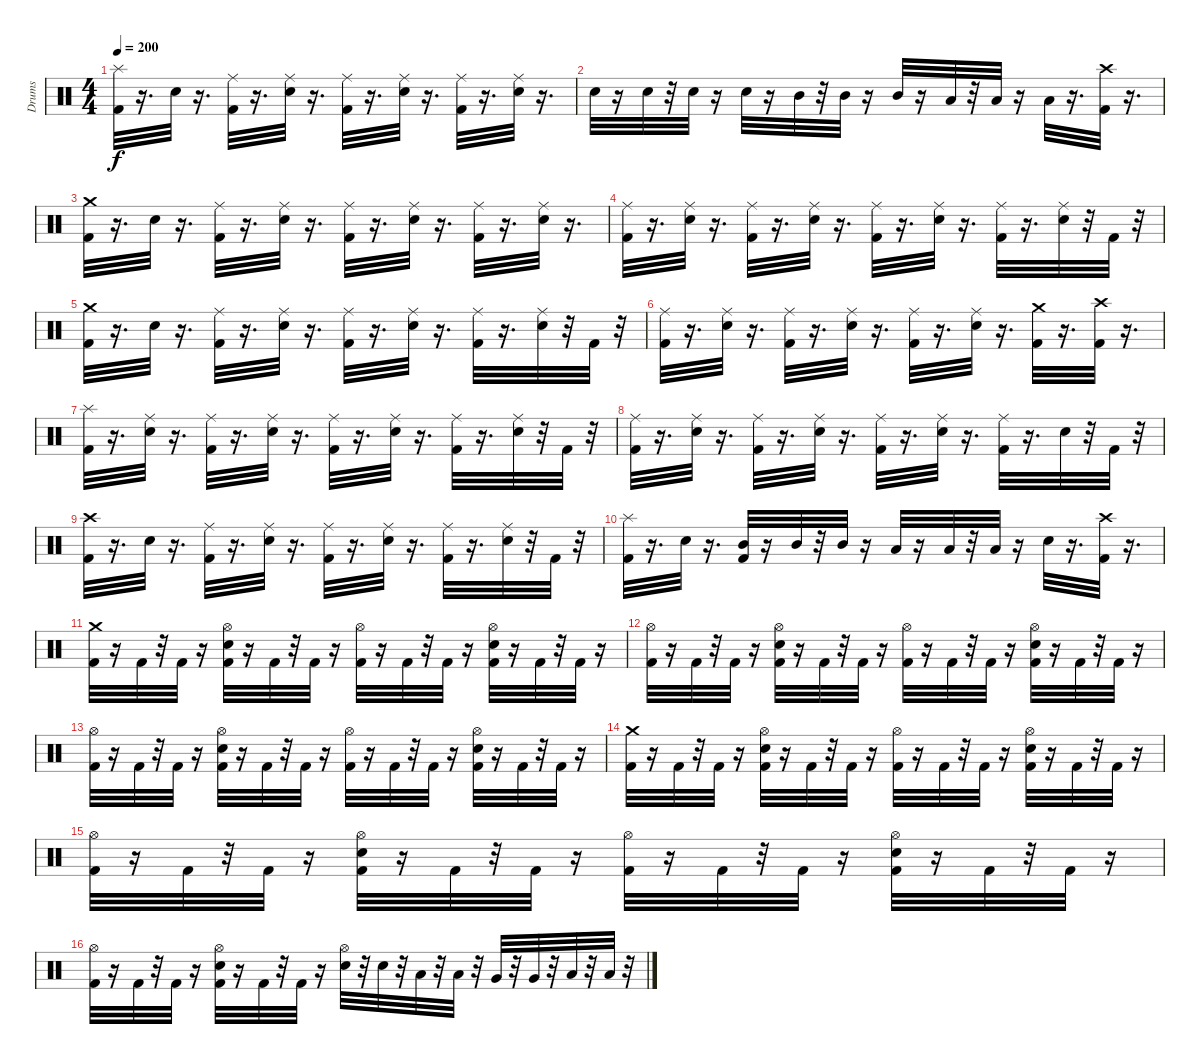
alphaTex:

\track ("Drums" "Drums") {instrument percussion}
\staff {score}
\articulation defaults
\ts (4 4)
\tempo 200
\clef neutral
\ks c
("Kick (hit) 2" "Splash (hit)").32{dy f} r.16{d} "Electric Snare (hit)".32 r.16{d} ("Kick (hit) 2" "Ride (middle)").32 r.16{d} ("Electric Snare (hit)" "Ride (middle)").32 r.16{d} ("Ride (middle)" "Kick (hit) 2").32 r.16{d} ("Electric Snare (hit)" "Ride (middle)").32 r.16{d} ("Ride (middle)" "Kick (hit) 2").32 r.16{d} ("Electric Snare (hit)" "Ride (middle)").32 r.16{d} |
"Electric Snare (hit)".32 r.16 "Electric Snare (hit)".32 r.32 "Electric Snare (hit)".32 r.16 "Electric Snare (hit)".32 r.16 "Mid Tom (hit)".32 r.32 "Mid Tom (hit)".32 r.16 "Mid Tom (hit)".32 r.16 "Low Tom (hit)".32 r.32 "Low Tom (hit)".32 r.16 "Low Tom (hit)".32 r.16{d} ("Crash high (hit)" "Kick (hit) 2").32 r.16{d} |
("Kick (hit) 2" "Crash medium (hit)").32 r.16{d} "Electric Snare (hit)".32 r.16{d} ("Kick (hit) 2" "Ride (middle)").32 r.16{d} ("Electric Snare (hit)" "Ride (middle)").32 r.16{d} ("Ride (middle)" "Kick (hit) 2").32 r.16{d} ("Electric Snare (hit)" "Ride (middle)").32 r.16{d} ("Kick (hit) 2" "Ride (middle)").32 r.16{d} ("Electric Snare (hit)" "Ride (middle)").32 r.16{d} |
("Kick (hit) 2" "Ride (middle)").32 r.16{d} ("Electric Snare (hit)" "Ride (middle)").32 r.16{d} ("Kick (hit) 2" "Ride (middle)").32 r.16{d} ("Electric Snare (hit)" "Ride (middle)").32 r.16{d} ("Kick (hit) 2" "Ride (middle)").32 r.16{d} ("Electric Snare (hit)" "Ride (middle)").32 r.16{d} ("Kick (hit) 2" "Ride (middle)").32 r.16{d} ("Electric Snare (hit)" "Ride (middle)").32 r.32 "Kick (hit) 2".32 r.32 |
("Kick (hit) 2" "Crash medium (hit)").32 r.16{d} "Electric Snare (hit)".32 r.16{d} ("Kick (hit) 2" "Ride (middle)").32 r.16{d} ("Electric Snare (hit)" "Ride (middle)").32 r.16{d} ("Kick (hit) 2" "Ride (middle)").32 r.16{d} ("Electric Snare (hit)" "Ride (middle)").32 r.16{d} ("Kick (hit) 2" "Ride (middle)").32 r.16{d} ("Electric Snare (hit)" "Ride (middle)").32 r.32 "Kick (hit) 2".32 r.32 |
("Kick (hit) 2" "Ride (middle)").32 r.16{d} ("Ride (middle)" "Electric Snare (hit)").32 r.16{d} ("Kick (hit) 2" "Ride (middle)").32 r.16{d} ("Electric Snare (hit)" "Ride (middle)").32 r.16{d} ("Kick (hit) 2" "Ride (middle)").32 r.16{d} ("Electric Snare (hit)" "Ride (middle)").32 r.16{d} ("Crash medium (hit)" "Kick (hit) 2").32 r.16{d} ("Crash high (hit)" "Kick (hit) 2").32 r.16{d} |
("Splash (hit)" "Kick (hit) 2").32 r.16{d} ("Electric Snare (hit)" "Ride (middle)").32 r.16{d} ("Ride (middle)" "Kick (hit) 2").32 r.16{d} ("Electric Snare (hit)" "Ride (middle)").32 r.16{d} ("Ride (middle)" "Kick (hit) 2").32 r.16{d} ("Electric Snare (hit)" "Ride (middle)").32 r.16{d} ("Ride (middle)" "Kick (hit) 2").32 r.16{d} ("Electric Snare (hit)" "Ride (middle)").32 r.32 "Kick (hit) 2".32 r.32 |
("Ride (middle)" "Kick (hit) 2").32 r.16{d} ("Electric Snare (hit)" "Ride (middle)").32 r.16{d} ("Ride (middle)" "Kick (hit) 2").32 r.16{d} ("Electric Snare (hit)" "Ride (middle)").32 r.16{d} ("Ride (middle)" "Kick (hit) 2").32 r.16{d} ("Electric Snare (hit)" "Ride (middle)").32 r.16{d} ("Ride (middle)" "Kick (hit) 2").32 r.16{d} "Electric Snare (hit)".32 r.32 "Kick (hit) 2".32 r.32 |
("Kick (hit) 2" "Crash high (hit)").32 r.16{d} "Electric Snare (hit)".32 r.16{d} ("Kick (hit) 2" "Ride (middle)").32 r.16{d} ("Electric Snare (hit)" "Ride (middle)").32 r.16{d} ("Kick (hit) 2" "Ride (middle)").32 r.16{d} ("Electric Snare (hit)" "Ride (middle)").32 r.16{d} ("Kick (hit) 2" "Ride (middle)").32 r.16{d} ("Electric Snare (hit)" "Ride (middle)").32 r.32 "Kick (hit) 2".32 r.32 |
("Kick (hit) 2" "Splash (hit)").32 r.16{d} "Electric Snare (hit)".32 r.16{d} ("Mid Tom (hit)" "Kick (hit) 2").32 r.16 "Mid Tom (hit)".32 r.32 "Mid Tom (hit)".32 r.16 "Low Tom (hit)".32 r.16 "Low Tom (hit)".32 r.32 "Low Tom (hit)".32 r.16 "Electric Snare (hit)".32 r.16{d} ("Kick (hit) 2" "Crash high (hit)").32 r.16{d} |
("Kick (hit) 2" "Crash medium (hit)").32 r.16 "Kick (hit) 2".32 r.32 "Kick (hit) 2".32 r.16 ("Hi-Hat (open)" "Electric Snare (hit)" "Kick (hit) 2").32 r.16 "Kick (hit) 2".32 r.32 "Kick (hit) 2".32 r.16 ("Hi-Hat (open)" "Kick (hit) 2").32 r.16 "Kick (hit) 2".32 r.32 "Kick (hit) 2".32 r.16 ("Hi-Hat (open)" "Electric Snare (hit)" "Kick (hit) 2").32 r.16 "Kick (hit) 2".32 r.32 "Kick (hit) 2".32 r.16 |
("Hi-Hat (open)" "Kick (hit) 2").32 r.16 "Kick (hit) 2".32 r.32 "Kick (hit) 2".32 r.16 ("Hi-Hat (open)" "Electric Snare (hit)" "Kick (hit) 2").32 r.16 "Kick (hit) 2".32 r.32 "Kick (hit) 2".32 r.16 ("Hi-Hat (open)" "Kick (hit) 2").32 r.16 "Kick (hit) 2".32 r.32 "Kick (hit) 2".32 r.16 ("Hi-Hat (open)" "Electric Snare (hit)" "Kick (hit) 2").32 r.16 "Kick (hit) 2".32 r.32 "Kick (hit) 2".32 r.16 |
("Hi-Hat (open)" "Kick (hit) 2").32 r.16 "Kick (hit) 2".32 r.32 "Kick (hit) 2".32 r.16 ("Hi-Hat (open)" "Electric Snare (hit)" "Kick (hit) 2").32 r.16 "Kick (hit) 2".32 r.32 "Kick (hit) 2".32 r.16 ("Hi-Hat (open)" "Kick (hit) 2").32 r.16 "Kick (hit) 2".32 r.32 "Kick (hit) 2".32 r.16 ("Hi-Hat (open)" "Electric Snare (hit)" "Kick (hit) 2").32 r.16 "Kick (hit) 2".32 r.32 "Kick (hit) 2".32 r.16 |
("Crash medium (hit)" "Kick (hit) 2").32 r.16 "Kick (hit) 2".32 r.32 "Kick (hit) 2".32 r.16 ("Hi-Hat (open)" "Electric Snare (hit)" "Kick (hit) 2").32 r.16 "Kick (hit) 2".32 r.32 "Kick (hit) 2".32 r.16 ("Kick (hit) 2" "Hi-Hat (open)").32 r.16 "Kick (hit) 2".32 r.32 "Kick (hit) 2".32 r.16 ("Kick (hit) 2" "Electric Snare (hit)" "Hi-Hat (open)").32 r.16 "Kick (hit) 2".32 r.32 "Kick (hit) 2".32 r.16 |
("Hi-Hat (open)" "Kick (hit) 2").32 r.16 "Kick (hit) 2".32 r.32 "Kick (hit) 2".32 r.16 ("Kick (hit) 2" "Electric Snare (hit)" "Hi-Hat (open)").32 r.16 "Kick (hit) 2".32 r.32 "Kick (hit) 2".32 r.16 ("Kick (hit) 2" "Hi-Hat (open)").32 r.16 "Kick (hit) 2".32 r.32 "Kick (hit) 2".32 r.16 ("Kick (hit) 2" "Electric Snare (hit)" "Hi-Hat (open)").32 r.16 "Kick (hit) 2".32 r.32 "Kick (hit) 2".32 r.16 |
("Kick (hit) 2" "Hi-Hat (open)").32 r.16 "Kick (hit) 2".32 r.32 "Kick (hit) 2".32 r.16 ("Kick (hit) 2" "Electric Snare (hit)" "Hi-Hat (open)").32 r.16 "Kick (hit) 2".32 r.32 "Kick (hit) 2".32 r.16 ("Electric Snare (hit)" "Hi-Hat (open)").32 r.32 "Electric Snare (hit)".32 r.32 "Low Tom (hit)".32 r.32 "Low Tom (hit)".32 r.32 "Very Low Tom (hit)".32 r.32 "Very Low Tom (hit)".32 r.32 "Low Floor Tom (hit)".32 r.32 "Low Floor Tom (hit)".32 r.32
